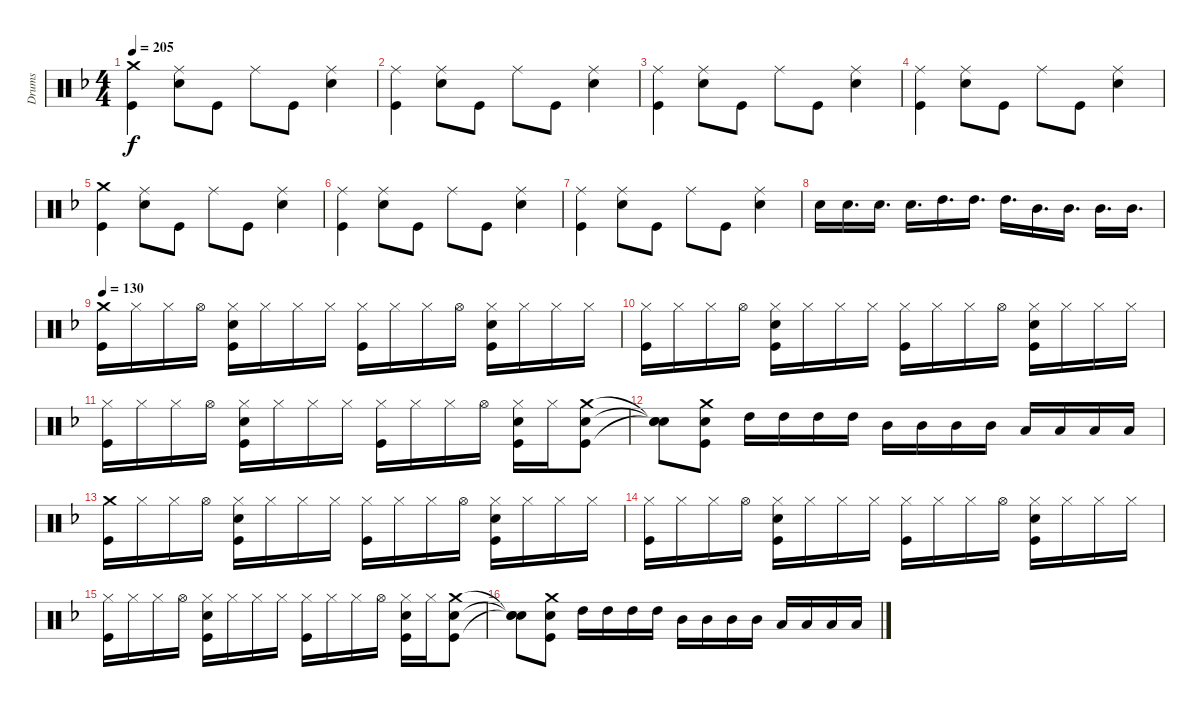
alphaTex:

\track ("Drums" "Drums") {instrument percussion}
\staff {score}
\articulation defaults
\ts (4 4)
\tempo 205
\clef neutral
\ks f
("Crash medium (hit)" "Kick (hit)").4{dy f} ("Ride (middle)" "Electric Snare (hit)").8 "Kick (hit)".8 "Ride (middle)".8 "Kick (hit)".8 ("Ride (middle)" "Electric Snare (hit)").4 |
("Ride (middle)" "Kick (hit)").4 ("Ride (middle)" "Electric Snare (hit)").8 "Kick (hit)".8 "Ride (middle)".8 "Kick (hit)".8 ("Ride (middle)" "Electric Snare (hit)").4 |
("Ride (middle)" "Kick (hit)").4 ("Ride (middle)" "Electric Snare (hit)").8 "Kick (hit)".8 "Ride (middle)".8 "Kick (hit)".8 ("Ride (middle)" "Electric Snare (hit)").4 |
("Ride (middle)" "Kick (hit)").4 ("Ride (middle)" "Electric Snare (hit)").8 "Kick (hit)".8 "Ride (middle)".8 "Kick (hit)".8 ("Ride (middle)" "Electric Snare (hit)").4 |
("Crash medium (hit)" "Kick (hit)").4 ("Ride (middle)" "Electric Snare (hit)").8 "Kick (hit)".8 "Ride (middle)".8 "Kick (hit)".8 ("Ride (middle)" "Electric Snare (hit)").4 |
("Ride (middle)" "Kick (hit)").4 ("Ride (middle)" "Electric Snare (hit)").8 "Kick (hit)".8 "Ride (middle)".8 "Kick (hit)".8 ("Ride (middle)" "Electric Snare (hit)").4 |
("Ride (middle)" "Kick (hit)").4 ("Ride (middle)" "Electric Snare (hit)").8 "Kick (hit)".8 "Ride (middle)".8 "Kick (hit)".8 ("Ride (middle)" "Electric Snare (hit)").4 |
"Electric Snare (hit)".16 "Electric Snare (hit)".16{d} "Electric Snare (hit)".16{d} "Electric Snare (hit)".16{d} "High Tom (hit)".16{d} "High Tom (hit)".16{d} "High Tom (hit)".16{d} "Mid Tom (hit)".16{d} "Mid Tom (hit)".16{d} "Mid Tom (hit)".16{d} "Mid Tom (hit)".16{d} |
\tempo 130
("Crash medium (hit)" "Kick (hit)").16 "Hi-Hat (closed)".16 "Hi-Hat (closed)".16 "Hi-Hat (open)".16 ("Hi-Hat (closed)" "Kick (hit)" "Electric Snare (hit)").16 "Hi-Hat (closed)".16 "Hi-Hat (closed)".16 "Hi-Hat (closed)".16 ("Hi-Hat (closed)" "Kick (hit)").16 "Hi-Hat (closed)".16 "Hi-Hat (closed)".16 "Hi-Hat (open)".16 ("Hi-Hat (closed)" "Kick (hit)" "Electric Snare (hit)").16 "Hi-Hat (closed)".16 "Hi-Hat (closed)".16 "Hi-Hat (closed)".16 |
("Hi-Hat (closed)" "Kick (hit)").16 "Hi-Hat (closed)".16 "Hi-Hat (closed)".16 "Hi-Hat (open)".16 ("Hi-Hat (closed)" "Kick (hit)" "Electric Snare (hit)").16 "Hi-Hat (closed)".16 "Hi-Hat (closed)".16 "Hi-Hat (closed)".16 ("Hi-Hat (closed)" "Kick (hit)").16 "Hi-Hat (closed)".16 "Hi-Hat (closed)".16 "Hi-Hat (open)".16 ("Hi-Hat (closed)" "Kick (hit)" "Electric Snare (hit)").16 "Hi-Hat (closed)".16 "Hi-Hat (closed)".16 "Hi-Hat (closed)".16 |
("Hi-Hat (closed)" "Kick (hit)").16 "Hi-Hat (closed)".16 "Hi-Hat (closed)".16 "Hi-Hat (open)".16 ("Hi-Hat (closed)" "Kick (hit)" "Electric Snare (hit)").16 "Hi-Hat (closed)".16 "Hi-Hat (closed)".16 "Hi-Hat (closed)".16 ("Hi-Hat (closed)" "Kick (hit)").16 "Hi-Hat (closed)".16 "Hi-Hat (closed)".16 "Hi-Hat (open)".16 ("Hi-Hat (closed)" "Kick (hit)" "Electric Snare (hit)").16 "Hi-Hat (closed)".16 ("Crash medium (hit)" "Kick (hit)" "Electric Snare (hit)").8 |
("Snare (hit)"{t} "Snare (hit)"{t} "Snare (hit)"{t}).8 ("Crash medium (hit)" "Kick (hit)" "Electric Snare (hit)").8 "High Tom (hit)".16 "High Tom (hit)".16 "High Tom (hit)".16 "High Tom (hit)".16 "Mid Tom (hit)".16 "Mid Tom (hit)".16 "Mid Tom (hit)".16 "Mid Tom (hit)".16 "Low Tom (hit)".16 "Low Tom (hit)".16 "Low Tom (hit)".16 "Low Tom (hit)".16 |
("Crash medium (hit)" "Kick (hit)").16 "Hi-Hat (closed)".16 "Hi-Hat (closed)".16 "Hi-Hat (open)".16 ("Hi-Hat (closed)" "Kick (hit)" "Electric Snare (hit)").16 "Hi-Hat (closed)".16 "Hi-Hat (closed)".16 "Hi-Hat (closed)".16 ("Hi-Hat (closed)" "Kick (hit)").16 "Hi-Hat (closed)".16 "Hi-Hat (closed)".16 "Hi-Hat (open)".16 ("Hi-Hat (closed)" "Kick (hit)" "Electric Snare (hit)").16 "Hi-Hat (closed)".16 "Hi-Hat (closed)".16 "Hi-Hat (closed)".16 |
("Hi-Hat (closed)" "Kick (hit)").16 "Hi-Hat (closed)".16 "Hi-Hat (closed)".16 "Hi-Hat (open)".16 ("Hi-Hat (closed)" "Kick (hit)" "Electric Snare (hit)").16 "Hi-Hat (closed)".16 "Hi-Hat (closed)".16 "Hi-Hat (closed)".16 ("Hi-Hat (closed)" "Kick (hit)").16 "Hi-Hat (closed)".16 "Hi-Hat (closed)".16 "Hi-Hat (open)".16 ("Hi-Hat (closed)" "Kick (hit)" "Electric Snare (hit)").16 "Hi-Hat (closed)".16 "Hi-Hat (closed)".16 "Hi-Hat (closed)".16 |
("Hi-Hat (closed)" "Kick (hit)").16 "Hi-Hat (closed)".16 "Hi-Hat (closed)".16 "Hi-Hat (open)".16 ("Hi-Hat (closed)" "Kick (hit)" "Electric Snare (hit)").16 "Hi-Hat (closed)".16 "Hi-Hat (closed)".16 "Hi-Hat (closed)".16 ("Hi-Hat (closed)" "Kick (hit)").16 "Hi-Hat (closed)".16 "Hi-Hat (closed)".16 "Hi-Hat (open)".16 ("Hi-Hat (closed)" "Kick (hit)" "Electric Snare (hit)").16 "Hi-Hat (closed)".16 ("Crash medium (hit)" "Kick (hit)" "Electric Snare (hit)").8 |
("Snare (hit)"{t} "Snare (hit)"{t} "Snare (hit)"{t}).8 ("Crash medium (hit)" "Kick (hit)" "Electric Snare (hit)").8 "High Tom (hit)".16 "High Tom (hit)".16 "High Tom (hit)".16 "High Tom (hit)".16 "Mid Tom (hit)".16 "Mid Tom (hit)".16 "Mid Tom (hit)".16 "Mid Tom (hit)".16 "Low Tom (hit)".16 "Low Tom (hit)".16 "Low Tom (hit)".16 "Low Tom (hit)".16
